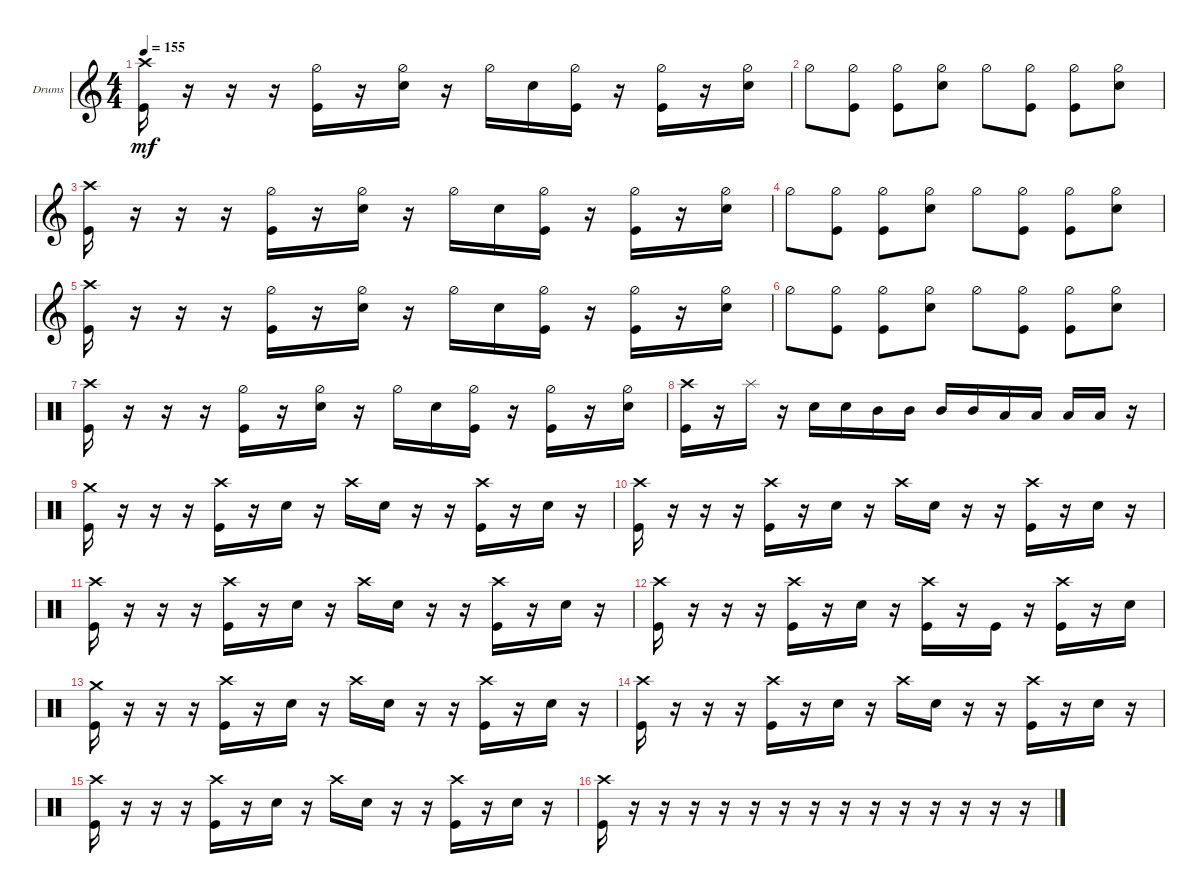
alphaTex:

\defaultSystemsLayout 4
\bracketExtendMode groupsimilarinstruments
\firstSystemTrackNameOrientation horizontal
\otherSystemsTrackNameOrientation horizontal
\track ("Drumkit" "Drums") {instrument percussion}
\staff {score}
\articulation defaults
\ts (4 4)
\tempo 155
\clef g2
\ks c
("Kick (hit)" "Crash high (hit)").16{dy mf} r.16 r.16 r.16 ("Kick (hit)" "Hi-Hat (half)").16 r.16 ("Snare (hit) 2" "Hi-Hat (half)").16 r.16 "Hi-Hat (half)".16 "Snare (hit) 2".16 ("Kick (hit)" "Hi-Hat (half)").16 r.16 ("Kick (hit)" "Hi-Hat (half)").16 r.16 ("Snare (hit) 2" "Hi-Hat (half)").16 |
"Hi-Hat (half)".8 ("Kick (hit)" "Hi-Hat (half)").8 ("Kick (hit)" "Hi-Hat (half)").8 ("Snare (hit) 2" "Hi-Hat (half)").8 "Hi-Hat (half)".8 ("Kick (hit)" "Hi-Hat (half)").8 ("Kick (hit)" "Hi-Hat (half)").8 ("Snare (hit) 2" "Hi-Hat (half)").8 |
("Kick (hit)" "Crash high (hit)").16 r.16 r.16 r.16 ("Kick (hit)" "Hi-Hat (half)").16 r.16 ("Snare (hit) 2" "Hi-Hat (half)").16 r.16 "Hi-Hat (half)".16 "Snare (hit) 2".16 ("Kick (hit)" "Hi-Hat (half)").16 r.16 ("Kick (hit)" "Hi-Hat (half)").16 r.16 ("Snare (hit) 2" "Hi-Hat (half)").16 |
"Hi-Hat (half)".8 ("Kick (hit)" "Hi-Hat (half)").8 ("Kick (hit)" "Hi-Hat (half)").8 ("Snare (hit) 2" "Hi-Hat (half)").8 "Hi-Hat (half)".8 ("Kick (hit)" "Hi-Hat (half)").8 ("Kick (hit)" "Hi-Hat (half)").8 ("Snare (hit) 2" "Hi-Hat (half)").8 |
("Kick (hit)" "Crash high (hit)").16 r.16 r.16 r.16 ("Kick (hit)" "Hi-Hat (half)").16 r.16 ("Snare (hit) 2" "Hi-Hat (half)").16 r.16 "Hi-Hat (half)".16 "Snare (hit) 2".16 ("Kick (hit)" "Hi-Hat (half)").16 r.16 ("Kick (hit)" "Hi-Hat (half)").16 r.16 ("Snare (hit) 2" "Hi-Hat (half)").16 |
"Hi-Hat (half)".8 ("Kick (hit)" "Hi-Hat (half)").8 ("Kick (hit)" "Hi-Hat (half)").8 ("Snare (hit) 2" "Hi-Hat (half)").8 "Hi-Hat (half)".8 ("Kick (hit)" "Hi-Hat (half)").8 ("Kick (hit)" "Hi-Hat (half)").8 ("Snare (hit) 2" "Hi-Hat (half)").8 |
\clef neutral
("Kick (hit)" "Crash high (hit)").16 r.16 r.16 r.16 ("Kick (hit)" "Hi-Hat (half)").16 r.16 ("Snare (hit) 2" "Hi-Hat (half)").16 r.16 "Hi-Hat (half)".16 "Snare (hit) 2".16 ("Kick (hit)" "Hi-Hat (half)").16 r.16 ("Kick (hit)" "Hi-Hat (half)").16 r.16 ("Snare (hit) 2" "Hi-Hat (half)").16 |
("Kick (hit)" "Crash high (hit)").16 r.16 "Splash (hit)".16 r.16 "Snare (hit) 2".16 "Snare (hit) 2".16 "Mid Tom (hit)".16 "Mid Tom (hit)".16 "Mid Tom (hit)".16 "Mid Tom (hit)".16 "Low Tom (hit)".16 "Low Tom (hit)".16 "Low Tom (hit)".16 "Low Tom (hit)".16 r.16 |
("Kick (hit)" "Crash medium (hit)").16 r.16 r.16 r.16 ("Kick (hit)" "Crash high (hit)").16 r.16 "Snare (hit) 2".16 r.16 "Crash high (hit)".16 "Snare (hit) 2".16 r.16 r.16 ("Crash high (hit)" "Kick (hit)").16 r.16 "Snare (hit) 2".16 r.16 |
("Kick (hit)" "Crash high (hit)").16 r.16 r.16 r.16 ("Kick (hit)" "Crash high (hit)").16 r.16 "Snare (hit) 2".16 r.16 "Crash high (hit)".16 "Snare (hit) 2".16 r.16 r.16 ("Crash high (hit)" "Kick (hit)").16 r.16 "Snare (hit) 2".16 r.16 |
("Kick (hit)" "Crash high (hit)").16 r.16 r.16 r.16 ("Kick (hit)" "Crash high (hit)").16 r.16 "Snare (hit) 2".16 r.16 "Crash high (hit)".16 "Snare (hit) 2".16 r.16 r.16 ("Crash high (hit)" "Kick (hit)").16 r.16 "Snare (hit) 2".16 r.16 |
("Kick (hit)" "Crash high (hit)").16 r.16 r.16 r.16 ("Kick (hit)" "Crash high (hit)").16 r.16 "Snare (hit) 2".16 r.16 ("Kick (hit)" "Crash high (hit)").16 r.16 "Kick (hit)".16 r.16 ("Kick (hit)" "Crash high (hit)").16 r.16 "Snare (hit) 2".16 |
("Kick (hit)" "Crash medium (hit)").16 r.16 r.16 r.16 ("Kick (hit)" "Crash high (hit)").16 r.16 "Snare (hit) 2".16 r.16 "Crash high (hit)".16 "Snare (hit) 2".16 r.16 r.16 ("Crash high (hit)" "Kick (hit)").16 r.16 "Snare (hit) 2".16 r.16 |
("Kick (hit)" "Crash high (hit)").16 r.16 r.16 r.16 ("Kick (hit)" "Crash high (hit)").16 r.16 "Snare (hit) 2".16 r.16 "Crash high (hit)".16 "Snare (hit) 2".16 r.16 r.16 ("Crash high (hit)" "Kick (hit)").16 r.16 "Snare (hit) 2".16 r.16 |
("Kick (hit)" "Crash high (hit)").16 r.16 r.16 r.16 ("Kick (hit)" "Crash high (hit)").16 r.16 "Snare (hit) 2".16 r.16 "Crash high (hit)".16 "Snare (hit) 2".16 r.16 r.16 ("Crash high (hit)" "Kick (hit)").16 r.16 "Snare (hit) 2".16 r.16 |
("Kick (hit)" "Crash high (hit)").16 r.16 r.16 r.16 r.16 r.16 r.16 r.16 r.16 r.16 r.16 r.16 r.16 r.16 r.16
